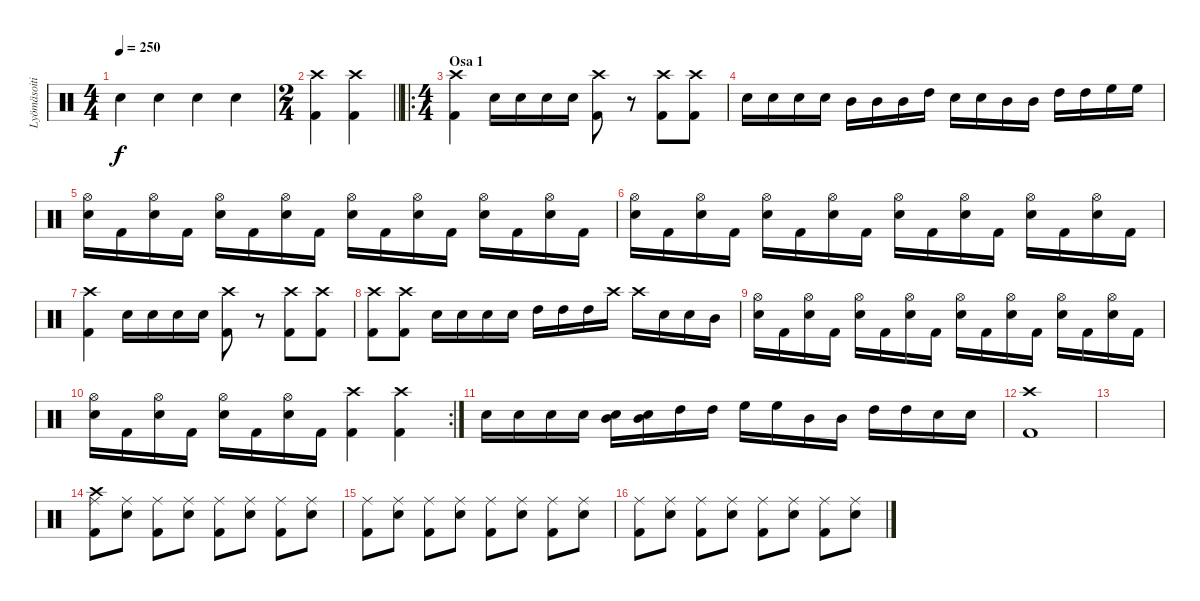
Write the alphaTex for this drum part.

\track ("Lyömäsoitin" "Lyömäsoiti") {instrument percussion}
\staff {score}
\articulation defaults
\ts (4 4)
\tempo 250
\clef neutral
\ks c "Electric Snare (hit)".4{dy f} "Electric Snare (hit)".4 "Electric Snare (hit)".4 "Electric Snare (hit)".4
|
\ts (2 4)
\barLineRight lightlight
("Crash high (hit)" "Kick (hit) 2").4 ("Crash high (hit)" "Kick (hit) 2").4 |
\ro
\ts (4 4)
\section ("" "Osa 1")
("Crash high (hit)" "Kick (hit) 2").4 "Electric Snare (hit)".16 "Electric Snare (hit)".16 "Electric Snare (hit)".16 "Electric Snare (hit)".16 ("Crash high (hit)" "Kick (hit) 2").8 r.8 ("Crash high (hit)" "Kick (hit) 2").8 ("Crash high (hit)" "Kick (hit) 2").8 |
"Electric Snare (hit)".16 "Electric Snare (hit)".16 "Electric Snare (hit)".16 "Electric Snare (hit)".16 "Mid Tom (hit)".16 "Mid Tom (hit)".16 "Mid Tom (hit)".16 "High Tom (hit)".16 "Electric Snare (hit)".16 "Electric Snare (hit)".16 "Mid Tom (hit)".16 "Mid Tom (hit)".16 "High Tom (hit)".16 "High Tom (hit)".16 "High Floor Tom (hit)".16 "High Floor Tom (hit)".16 |
("Hi-Hat (open)" "Electric Snare (hit)").16 "Kick (hit) 2".16 ("Hi-Hat (open)" "Electric Snare (hit)").16 "Kick (hit) 2".16 ("Hi-Hat (open)" "Electric Snare (hit)").16 "Kick (hit) 2".16 ("Hi-Hat (open)" "Electric Snare (hit)").16 "Kick (hit) 2".16 ("Hi-Hat (open)" "Electric Snare (hit)").16 "Kick (hit) 2".16 ("Hi-Hat (open)" "Electric Snare (hit)").16 "Kick (hit) 2".16 ("Hi-Hat (open)" "Electric Snare (hit)").16 "Kick (hit) 2".16 ("Hi-Hat (open)" "Electric Snare (hit)").16 "Kick (hit) 2".16 |
("Hi-Hat (open)" "Electric Snare (hit)").16 "Kick (hit) 2".16 ("Hi-Hat (open)" "Electric Snare (hit)").16 "Kick (hit) 2".16 ("Hi-Hat (open)" "Electric Snare (hit)").16 "Kick (hit) 2".16 ("Hi-Hat (open)" "Electric Snare (hit)").16 "Kick (hit) 2".16 ("Hi-Hat (open)" "Electric Snare (hit)").16 "Kick (hit) 2".16 ("Hi-Hat (open)" "Electric Snare (hit)").16 "Kick (hit) 2".16 ("Hi-Hat (open)" "Electric Snare (hit)").16 "Kick (hit) 2".16 ("Hi-Hat (open)" "Electric Snare (hit)").16 "Kick (hit) 2".16 |
("Crash high (hit)" "Kick (hit) 2").4 "Electric Snare (hit)".16 "Electric Snare (hit)".16 "Electric Snare (hit)".16 "Electric Snare (hit)".16 ("Crash high (hit)" "Kick (hit) 2").8 r.8 ("Crash high (hit)" "Kick (hit) 2").8 ("Crash high (hit)" "Kick (hit) 2").8 |
("Crash high (hit)" "Kick (hit) 2").8 ("Crash high (hit)" "Kick (hit) 2").8 "Electric Snare (hit)".16 "Electric Snare (hit)".16 "Electric Snare (hit)".16 "Electric Snare (hit)".16 "High Tom (hit)".16 "High Tom (hit)".16 "High Tom (hit)".16 "Crash high (hit)".16 "Crash high (hit)".16 "Electric Snare (hit)".16 "Electric Snare (hit)".16 "Mid Tom (hit)".16 |
("Hi-Hat (open)" "Electric Snare (hit)").16 "Kick (hit) 2".16 ("Hi-Hat (open)" "Electric Snare (hit)").16 "Kick (hit) 2".16 ("Hi-Hat (open)" "Electric Snare (hit)").16 "Kick (hit) 2".16 ("Hi-Hat (open)" "Electric Snare (hit)").16 "Kick (hit) 2".16 ("Hi-Hat (open)" "Electric Snare (hit)").16 "Kick (hit) 2".16 ("Hi-Hat (open)" "Electric Snare (hit)").16 "Kick (hit) 2".16 ("Hi-Hat (open)" "Electric Snare (hit)").16 "Kick (hit) 2".16 ("Hi-Hat (open)" "Electric Snare (hit)").16 "Kick (hit) 2".16 |
\rc 2
("Hi-Hat (open)" "Electric Snare (hit)").16 "Kick (hit) 2".16 ("Hi-Hat (open)" "Electric Snare (hit)").16 "Kick (hit) 2".16 ("Hi-Hat (open)" "Electric Snare (hit)").16 "Kick (hit) 2".16 ("Hi-Hat (open)" "Electric Snare (hit)").16 "Kick (hit) 2".16 ("Crash high (hit)" "Kick (hit) 2").4 ("Crash high (hit)" "Kick (hit) 2").4 |
"Electric Snare (hit)".16 "Electric Snare (hit)".16 "Electric Snare (hit)".16 "Electric Snare (hit)".16 ("Mid Tom (hit)" "Electric Snare (hit)").16 ("Mid Tom (hit)" "Electric Snare (hit)").16 "High Tom (hit)".16 "High Tom (hit)".16 "High Floor Tom (hit)".16 "High Floor Tom (hit)".16 "Mid Tom (hit)".16 "Mid Tom (hit)".16 "High Tom (hit)".16 "High Tom (hit)".16 "Electric Snare (hit)".16 "Electric Snare (hit)".16 |
("Crash high (hit)" "Kick (hit) 2").1 |
|
("Crash high (hit)" "Ride (middle)" "Kick (hit) 2").8 ("Ride (middle)" "Electric Snare (hit)").8 ("Ride (middle)" "Kick (hit) 2").8 ("Ride (middle)" "Electric Snare (hit)").8 ("Ride (middle)" "Kick (hit) 2").8 ("Ride (middle)" "Electric Snare (hit)").8 ("Ride (middle)" "Kick (hit) 2").8 ("Ride (middle)" "Electric Snare (hit)").8 |
("Ride (middle)" "Kick (hit) 2").8 ("Ride (middle)" "Electric Snare (hit)").8 ("Ride (middle)" "Kick (hit) 2").8 ("Ride (middle)" "Electric Snare (hit)").8 ("Ride (middle)" "Kick (hit) 2").8 ("Ride (middle)" "Electric Snare (hit)").8 ("Ride (middle)" "Kick (hit) 2").8 ("Ride (middle)" "Electric Snare (hit)").8 |
("Ride (middle)" "Kick (hit) 2").8 ("Ride (middle)" "Electric Snare (hit)").8 ("Ride (middle)" "Kick (hit) 2").8 ("Ride (middle)" "Electric Snare (hit)").8 ("Ride (middle)" "Kick (hit) 2").8 ("Ride (middle)" "Electric Snare (hit)").8 ("Ride (middle)" "Kick (hit) 2").8 ("Ride (middle)" "Electric Snare (hit)").8
